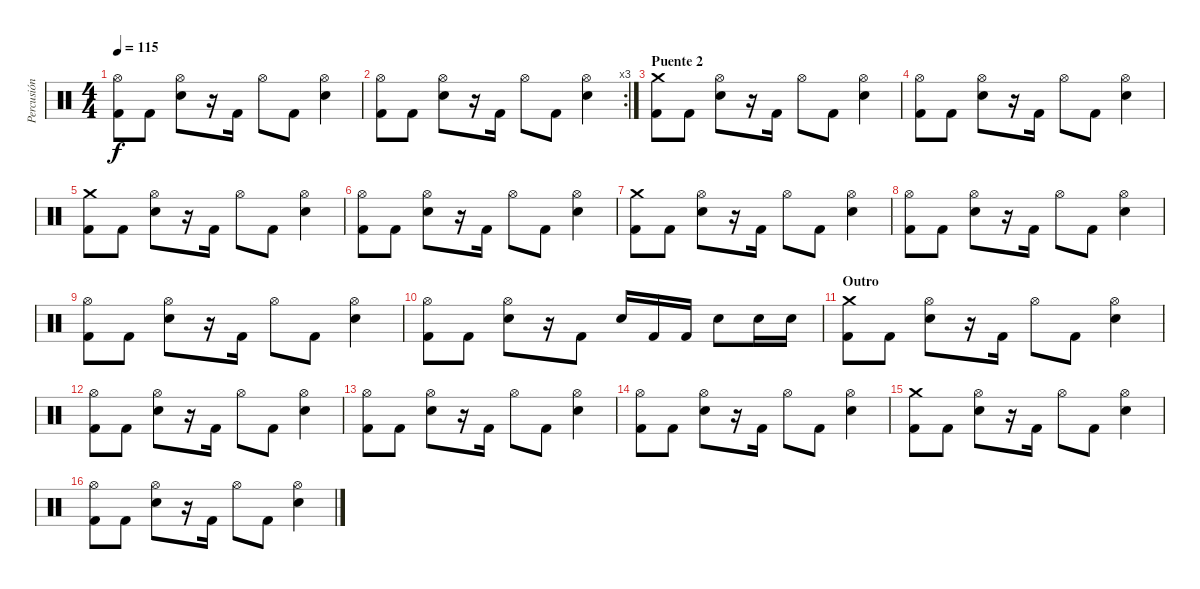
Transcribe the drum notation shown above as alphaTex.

\track ("Percusión" "Percusión") {instrument percussion}
\staff {score}
\articulation defaults
\ts (4 4)
\tempo 115
\clef neutral
\ks c
("Kick (hit) 2" "Hi-Hat (open)").8{dy f} "Kick (hit) 2".8 ("Electric Snare (hit)" "Hi-Hat (open)").8 r.16 "Kick (hit) 2".16 "Hi-Hat (open)".8 "Kick (hit) 2".8 ("Electric Snare (hit)" "Hi-Hat (open)").4 |
\rc 3
("Kick (hit) 2" "Hi-Hat (open)").8 "Kick (hit) 2".8 ("Electric Snare (hit)" "Hi-Hat (open)").8 r.16 "Kick (hit) 2".16 "Hi-Hat (open)".8 "Kick (hit) 2".8 ("Electric Snare (hit)" "Hi-Hat (open)").4 |
\section ("" "Puente 2")
("Kick (hit) 2" "Crash medium (hit)").8 "Kick (hit) 2".8 ("Electric Snare (hit)" "Hi-Hat (open)").8 r.16 "Kick (hit) 2".16 "Hi-Hat (open)".8 "Kick (hit) 2".8 ("Electric Snare (hit)" "Hi-Hat (open)").4 |
("Kick (hit) 2" "Hi-Hat (open)").8 "Kick (hit) 2".8 ("Electric Snare (hit)" "Hi-Hat (open)").8 r.16 "Kick (hit) 2".16 "Hi-Hat (open)".8 "Kick (hit) 2".8 ("Electric Snare (hit)" "Hi-Hat (open)").4 |
("Kick (hit) 2" "Crash medium (hit)").8 "Kick (hit) 2".8 ("Electric Snare (hit)" "Hi-Hat (open)").8 r.16 "Kick (hit) 2".16 "Hi-Hat (open)".8 "Kick (hit) 2".8 ("Electric Snare (hit)" "Hi-Hat (open)").4 |
("Kick (hit) 2" "Hi-Hat (open)").8 "Kick (hit) 2".8 ("Electric Snare (hit)" "Hi-Hat (open)").8 r.16 "Kick (hit) 2".16 "Hi-Hat (open)".8 "Kick (hit) 2".8 ("Electric Snare (hit)" "Hi-Hat (open)").4 |
("Kick (hit) 2" "Crash medium (hit)").8 "Kick (hit) 2".8 ("Electric Snare (hit)" "Hi-Hat (open)").8 r.16 "Kick (hit) 2".16 "Hi-Hat (open)".8 "Kick (hit) 2".8 ("Electric Snare (hit)" "Hi-Hat (open)").4 |
("Kick (hit) 2" "Hi-Hat (open)").8 "Kick (hit) 2".8 ("Electric Snare (hit)" "Hi-Hat (open)").8 r.16 "Kick (hit) 2".16 "Hi-Hat (open)".8 "Kick (hit) 2".8 ("Electric Snare (hit)" "Hi-Hat (open)").4 |
("Kick (hit) 2" "Hi-Hat (open)").8 "Kick (hit) 2".8 ("Electric Snare (hit)" "Hi-Hat (open)").8 r.16 "Kick (hit) 2".16 "Hi-Hat (open)".8 "Kick (hit) 2".8 ("Electric Snare (hit)" "Hi-Hat (open)").4 |
("Kick (hit) 2" "Hi-Hat (open)").8 "Kick (hit) 2".8 ("Electric Snare (hit)" "Hi-Hat (open)").8 r.16 "Kick (hit) 2".8 "Electric Snare (hit)".16 "Kick (hit) 2".16 "Kick (hit) 2".16 "Electric Snare (hit)".8 "Electric Snare (hit)".16 "Electric Snare (hit)".16 |
\section ("" "Outro")
("Kick (hit) 2" "Crash medium (hit)").8 "Kick (hit) 2".8 ("Electric Snare (hit)" "Hi-Hat (open)").8 r.16 "Kick (hit) 2".16 "Hi-Hat (open)".8 "Kick (hit) 2".8 ("Electric Snare (hit)" "Hi-Hat (open)").4 |
("Kick (hit) 2" "Hi-Hat (open)").8 "Kick (hit) 2".8 ("Electric Snare (hit)" "Hi-Hat (open)").8 r.16 "Kick (hit) 2".16 "Hi-Hat (open)".8 "Kick (hit) 2".8 ("Electric Snare (hit)" "Hi-Hat (open)").4 |
("Kick (hit) 2" "Hi-Hat (open)").8 "Kick (hit) 2".8 ("Electric Snare (hit)" "Hi-Hat (open)").8 r.16 "Kick (hit) 2".16 "Hi-Hat (open)".8 "Kick (hit) 2".8 ("Electric Snare (hit)" "Hi-Hat (open)").4 |
("Kick (hit) 2" "Hi-Hat (open)").8 "Kick (hit) 2".8 ("Electric Snare (hit)" "Hi-Hat (open)").8 r.16 "Kick (hit) 2".16 "Hi-Hat (open)".8 "Kick (hit) 2".8 ("Electric Snare (hit)" "Hi-Hat (open)").4 |
("Kick (hit) 2" "Crash medium (hit)").8 "Kick (hit) 2".8 ("Electric Snare (hit)" "Hi-Hat (open)").8 r.16 "Kick (hit) 2".16 "Hi-Hat (open)".8 "Kick (hit) 2".8 ("Electric Snare (hit)" "Hi-Hat (open)").4 |
("Kick (hit) 2" "Hi-Hat (open)").8 "Kick (hit) 2".8 ("Electric Snare (hit)" "Hi-Hat (open)").8 r.16 "Kick (hit) 2".16 "Hi-Hat (open)".8 "Kick (hit) 2".8 ("Electric Snare (hit)" "Hi-Hat (open)").4
